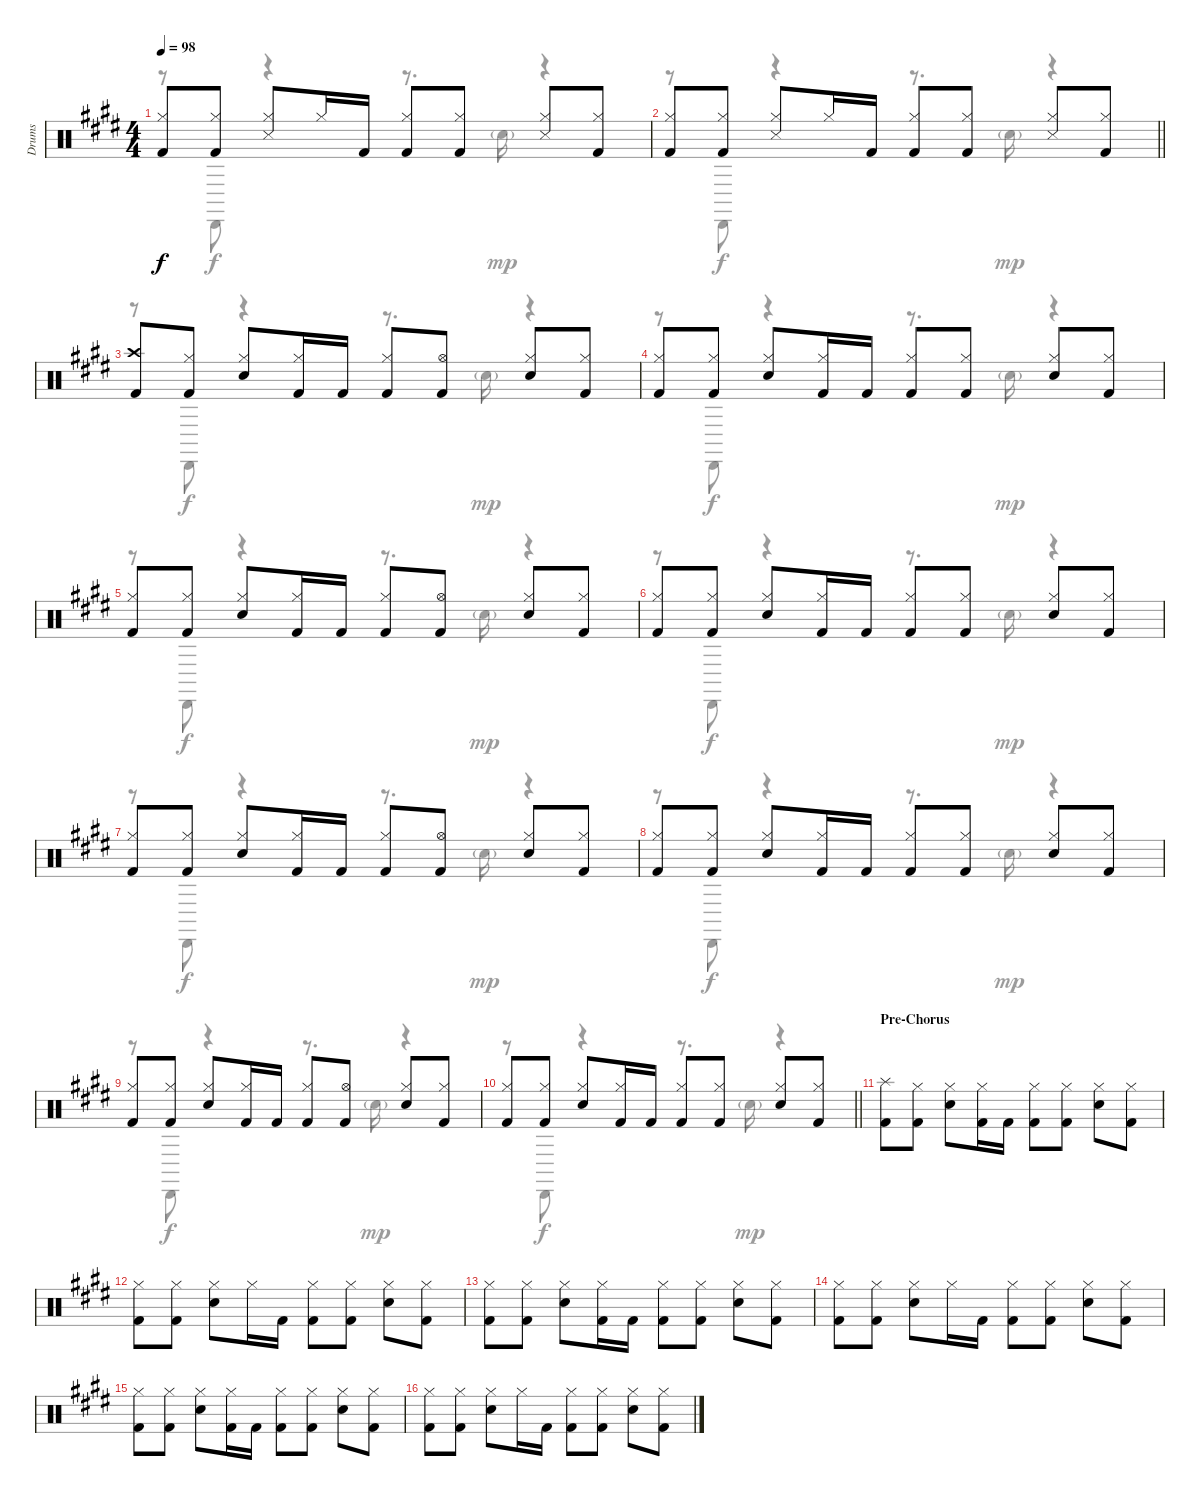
\track ("Drums" "Drums") {instrument percussion}
\staff {score}
\articulation defaults
\voice
\ts (4 4)
\tempo 98
\clef neutral
\ks e
("Hi-Hat (closed)" "Kick (hit) 2").8{dy f} ("Hi-Hat (closed)" "Kick (hit) 2").8 ("Hi-Hat (closed)" "Snare (side stick) 3").8 "Hi-Hat (closed)".16 "Kick (hit) 2".16 ("Hi-Hat (closed)" "Kick (hit) 2").8 ("Hi-Hat (closed)" "Kick (hit) 2").8 ("Hi-Hat (closed)" "Snare (side stick) 3").8 ("Hi-Hat (closed)" "Kick (hit) 2").8 |
\barLineRight lightlight
("Hi-Hat (closed)" "Kick (hit) 2").8 ("Hi-Hat (closed)" "Kick (hit) 2").8 ("Hi-Hat (closed)" "Snare (side stick) 3").8 "Hi-Hat (closed)".16 "Kick (hit) 2".16 ("Hi-Hat (closed)" "Kick (hit) 2").8 ("Hi-Hat (closed)" "Kick (hit) 2").8 ("Hi-Hat (closed)" "Snare (side stick) 3").8 ("Hi-Hat (closed)" "Kick (hit) 2").8 |
\section ("" "")
("Crash high (hit)" "Kick (hit) 2").8 ("Hi-Hat (closed)" "Kick (hit) 2").8 ("Hi-Hat (closed)" "Electric Snare (hit)").8 ("Hi-Hat (closed)" "Kick (hit) 2").16 "Kick (hit) 2".16 ("Hi-Hat (closed)" "Kick (hit) 2").8 ("Hi-Hat (open)" "Kick (hit) 2").8 ("Hi-Hat (closed)" "Electric Snare (hit)").8 ("Hi-Hat (closed)" "Kick (hit) 2").8 |
("Hi-Hat (closed)" "Kick (hit) 2").8 ("Hi-Hat (closed)" "Kick (hit) 2").8 ("Hi-Hat (closed)" "Electric Snare (hit)").8 ("Hi-Hat (closed)" "Kick (hit) 2").16 "Kick (hit) 2".16 ("Hi-Hat (closed)" "Kick (hit) 2").8 ("Hi-Hat (closed)" "Kick (hit) 2").8 ("Hi-Hat (closed)" "Electric Snare (hit)").8 ("Hi-Hat (closed)" "Kick (hit) 2").8 |
("Hi-Hat (closed)" "Kick (hit) 2").8 ("Hi-Hat (closed)" "Kick (hit) 2").8 ("Hi-Hat (closed)" "Electric Snare (hit)").8 ("Hi-Hat (closed)" "Kick (hit) 2").16 "Kick (hit) 2".16 ("Hi-Hat (closed)" "Kick (hit) 2").8 ("Hi-Hat (open)" "Kick (hit) 2").8 ("Hi-Hat (closed)" "Electric Snare (hit)").8 ("Hi-Hat (closed)" "Kick (hit) 2").8 |
("Hi-Hat (closed)" "Kick (hit) 2").8 ("Hi-Hat (closed)" "Kick (hit) 2").8 ("Hi-Hat (closed)" "Electric Snare (hit)").8 ("Hi-Hat (closed)" "Kick (hit) 2").16 "Kick (hit) 2".16 ("Hi-Hat (closed)" "Kick (hit) 2").8 ("Hi-Hat (closed)" "Kick (hit) 2").8 ("Hi-Hat (closed)" "Electric Snare (hit)").8 ("Hi-Hat (closed)" "Kick (hit) 2").8 |
("Hi-Hat (closed)" "Kick (hit) 2").8 ("Hi-Hat (closed)" "Kick (hit) 2").8 ("Hi-Hat (closed)" "Electric Snare (hit)").8 ("Hi-Hat (closed)" "Kick (hit) 2").16 "Kick (hit) 2".16 ("Hi-Hat (closed)" "Kick (hit) 2").8 ("Hi-Hat (open)" "Kick (hit) 2").8 ("Hi-Hat (closed)" "Electric Snare (hit)").8 ("Hi-Hat (closed)" "Kick (hit) 2").8 |
("Hi-Hat (closed)" "Kick (hit) 2").8 ("Hi-Hat (closed)" "Kick (hit) 2").8 ("Hi-Hat (closed)" "Electric Snare (hit)").8 ("Hi-Hat (closed)" "Kick (hit) 2").16 "Kick (hit) 2".16 ("Hi-Hat (closed)" "Kick (hit) 2").8 ("Hi-Hat (closed)" "Kick (hit) 2").8 ("Hi-Hat (closed)" "Electric Snare (hit)").8 ("Hi-Hat (closed)" "Kick (hit) 2").8 |
("Hi-Hat (closed)" "Kick (hit) 2").8 ("Hi-Hat (closed)" "Kick (hit) 2").8 ("Hi-Hat (closed)" "Electric Snare (hit)").8 ("Hi-Hat (closed)" "Kick (hit) 2").16 "Kick (hit) 2".16 ("Hi-Hat (closed)" "Kick (hit) 2").8 ("Hi-Hat (open)" "Kick (hit) 2").8 ("Hi-Hat (closed)" "Electric Snare (hit)").8 ("Hi-Hat (closed)" "Kick (hit) 2").8 |
\barLineRight lightlight
("Hi-Hat (closed)" "Kick (hit) 2").8 ("Hi-Hat (closed)" "Kick (hit) 2").8 ("Hi-Hat (closed)" "Electric Snare (hit)").8 ("Hi-Hat (closed)" "Kick (hit) 2").16 "Kick (hit) 2".16 ("Hi-Hat (closed)" "Kick (hit) 2").8 ("Hi-Hat (closed)" "Kick (hit) 2").8 ("Hi-Hat (closed)" "Electric Snare (hit)").8 ("Hi-Hat (closed)" "Kick (hit) 2").8 |
\section ("" "Pre-Chorus")
("Splash (hit)" "Kick (hit) 2").8 ("Hi-Hat (closed)" "Kick (hit) 2").8 ("Hi-Hat (closed)" "Electric Snare (hit)").8 ("Hi-Hat (closed)" "Kick (hit) 2").16 "Kick (hit) 2".16 ("Hi-Hat (closed)" "Kick (hit) 2").8 ("Hi-Hat (closed)" "Kick (hit) 2").8 ("Hi-Hat (closed)" "Electric Snare (hit)").8 ("Hi-Hat (closed)" "Kick (hit) 2").8 |
("Hi-Hat (closed)" "Kick (hit) 2").8 ("Hi-Hat (closed)" "Kick (hit) 2").8 ("Hi-Hat (closed)" "Electric Snare (hit)").8 "Hi-Hat (closed)".16 "Kick (hit) 2".16 ("Hi-Hat (closed)" "Kick (hit) 2").8 ("Hi-Hat (closed)" "Kick (hit) 2").8 ("Hi-Hat (closed)" "Electric Snare (hit)").8 ("Hi-Hat (closed)" "Kick (hit) 2").8 |
("Hi-Hat (closed)" "Kick (hit) 2").8 ("Hi-Hat (closed)" "Kick (hit) 2").8 ("Hi-Hat (closed)" "Electric Snare (hit)").8 ("Hi-Hat (closed)" "Kick (hit) 2").16 "Kick (hit) 2".16 ("Hi-Hat (closed)" "Kick (hit) 2").8 ("Hi-Hat (closed)" "Kick (hit) 2").8 ("Hi-Hat (closed)" "Electric Snare (hit)").8 ("Hi-Hat (closed)" "Kick (hit) 2").8 |
("Hi-Hat (closed)" "Kick (hit) 2").8 ("Hi-Hat (closed)" "Kick (hit) 2").8 ("Hi-Hat (closed)" "Electric Snare (hit)").8 "Hi-Hat (closed)".16 "Kick (hit) 2".16 ("Hi-Hat (closed)" "Kick (hit) 2").8 ("Hi-Hat (closed)" "Kick (hit) 2").8 ("Hi-Hat (closed)" "Electric Snare (hit)").8 ("Hi-Hat (closed)" "Kick (hit) 2").8 |
("Hi-Hat (closed)" "Kick (hit) 2").8 ("Hi-Hat (closed)" "Kick (hit) 2").8 ("Hi-Hat (closed)" "Electric Snare (hit)").8 ("Hi-Hat (closed)" "Kick (hit) 2").16 "Kick (hit) 2".16 ("Hi-Hat (closed)" "Kick (hit) 2").8 ("Hi-Hat (closed)" "Kick (hit) 2").8 ("Hi-Hat (closed)" "Electric Snare (hit)").8 ("Hi-Hat (closed)" "Kick (hit) 2").8 |
("Hi-Hat (closed)" "Kick (hit) 2").8 ("Hi-Hat (closed)" "Kick (hit) 2").8 ("Hi-Hat (closed)" "Electric Snare (hit)").8 "Hi-Hat (closed)".16 "Kick (hit) 2".16 ("Hi-Hat (closed)" "Kick (hit) 2").8 ("Hi-Hat (closed)" "Kick (hit) 2").8 ("Hi-Hat (closed)" "Electric Snare (hit)").8 ("Hi-Hat (closed)" "Kick (hit) 2").8
\voice
\clef neutral
\ottava regular
\simile none
\ks e
r.8{dy mp} "Cabasa (hit)".8{dy f} r.4 r.8{d} "Metronome (bell)"{g}.16{dy mp} r.4 |
\barLineRight lightlight
r.8 "Cabasa (hit)".8{dy f} r.4 r.8{d} "Metronome (bell)"{g}.16{dy mp} r.4 |
r.8 "Cabasa (hit)".8{dy f} r.4 r.8{d} "Metronome (bell)"{g}.16{dy mp} r.4 |
r.8 "Cabasa (hit)".8{dy f} r.4 r.8{d} "Metronome (bell)"{g}.16{dy mp} r.4 |
r.8 "Cabasa (hit)".8{dy f} r.4 r.8{d} "Metronome (bell)"{g}.16{dy mp} r.4 |
r.8 "Cabasa (hit)".8{dy f} r.4 r.8{d} "Metronome (bell)"{g}.16{dy mp} r.4 |
r.8 "Cabasa (hit)".8{dy f} r.4 r.8{d} "Metronome (bell)"{g}.16{dy mp} r.4 |
r.8 "Cabasa (hit)".8{dy f} r.4 r.8{d} "Metronome (bell)"{g}.16{dy mp} r.4 |
r.8 "Cabasa (hit)".8{dy f} r.4 r.8{d} "Metronome (bell)"{g}.16{dy mp} r.4 |
\barLineRight lightlight
r.8 "Cabasa (hit)".8{dy f} r.4 r.8{d} "Metronome (bell)"{g}.16{dy mp} r.4 |
|
|
|
|
|
